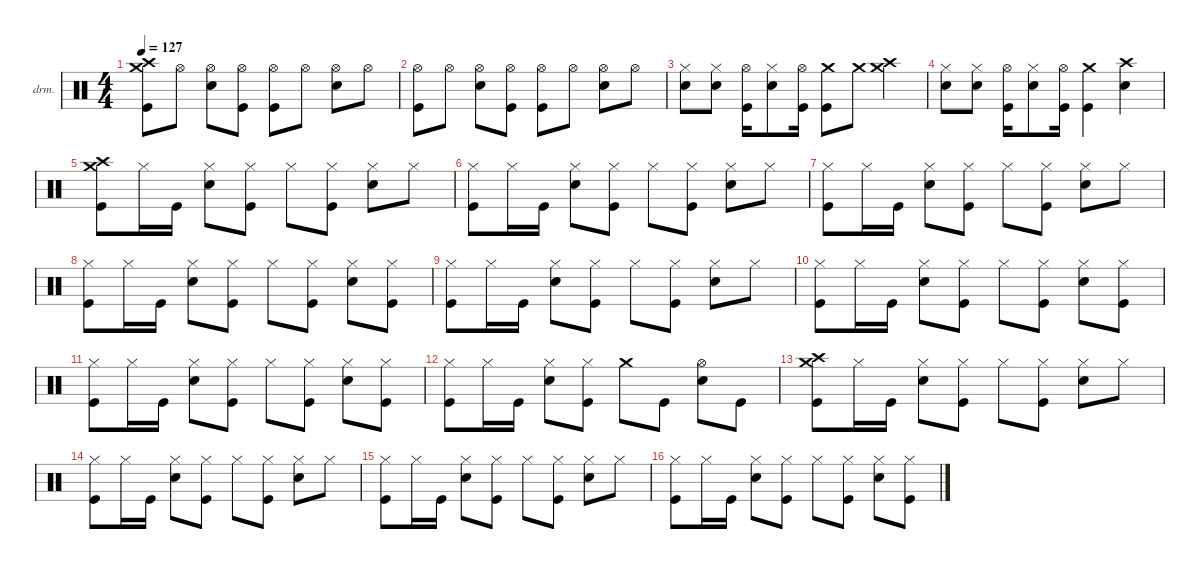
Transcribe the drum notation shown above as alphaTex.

\defaultSystemsLayout 4
\hideDynamics
\bracketExtendMode nobrackets
\firstSystemTrackNameOrientation horizontal
\otherSystemsTrackNameOrientation horizontal
\track ("Drums" "drm.") {instrument percussion}
\staff {score}
\articulation defaults
\ts (4 4)
\tempo 127
\clef neutral
\ks c
("Crash medium (hit)" "Crash high (hit)" "Kick (hit)").8{dy f beam Down} "Hi-Hat (open)".8{beam Down} ("Snare (hit) 2" "Hi-Hat (open)").8{beam Down} ("Hi-Hat (open)" "Kick (hit)").8{beam Down} ("Hi-Hat (open)" "Kick (hit)").8{beam Down} "Hi-Hat (open)".8{beam Down} ("Snare (hit) 2" "Hi-Hat (open)").8{beam Down} "Hi-Hat (open)".8{beam Down} |
("Hi-Hat (open)" "Kick (hit)").8{beam Down} "Hi-Hat (open)".8{beam Down} ("Snare (hit) 2" "Hi-Hat (open)").8{beam Down} ("Hi-Hat (open)" "Kick (hit)").8{beam Down} ("Hi-Hat (open)" "Kick (hit)").8{beam Down} "Hi-Hat (open)".8{beam Down} ("Snare (hit) 2" "Hi-Hat (open)").8{beam Down} "Hi-Hat (open)".8{beam Down} |
("Snare (hit) 2" "Hi-Hat (closed)").8{beam Down} ("Snare (hit) 2" "Hi-Hat (closed)").8{beam Down} ("Hi-Hat (open)" "Kick (hit)").16{beam Down} ("Snare (hit) 2" "Hi-Hat (closed)").8{beam Down} ("Hi-Hat (open)" "Kick (hit)").16{beam Down} ("Crash medium (hit)" "Kick (hit)").8{dy fff beam Down} "Crash medium (hit)".8{beam Down} ("Crash medium (hit)" "Crash high (hit)").4{beam Down} |
("Snare (hit) 2" "Hi-Hat (closed)").8{dy f beam Down} ("Snare (hit) 2" "Hi-Hat (closed)").8{beam Down} ("Hi-Hat (open)" "Kick (hit)").16{beam Down} ("Snare (hit) 2" "Hi-Hat (closed)").8{beam Down} ("Hi-Hat (open)" "Kick (hit)").16{beam Down} ("Crash medium (hit)" "Kick (hit)").4{dy fff beam Down} ("Snare (hit) 2" "Crash high (hit)").4{dy f beam Down} |
("Crash medium (hit)" "Crash high (hit)" "Kick (hit)").8{beam Down} "Hi-Hat (closed)".16{beam Down} "Kick (hit)".16{beam Down} ("Snare (hit) 2" "Hi-Hat (closed)").8{beam Down} ("Hi-Hat (closed)" "Kick (hit)").8{beam Down} "Hi-Hat (closed)".8{beam Down} ("Hi-Hat (closed)" "Kick (hit)").8{beam Down} ("Snare (hit) 2" "Hi-Hat (closed)").8{beam Down} "Hi-Hat (closed)".8{beam Down} |
("Hi-Hat (closed)" "Kick (hit)").8{beam Down} "Hi-Hat (closed)".16{beam Down} "Kick (hit)".16{beam Down} ("Snare (hit) 2" "Hi-Hat (closed)").8{beam Down} ("Hi-Hat (closed)" "Kick (hit)").8{beam Down} "Hi-Hat (closed)".8{beam Down} ("Hi-Hat (closed)" "Kick (hit)").8{beam Down} ("Snare (hit) 2" "Hi-Hat (closed)").8{beam Down} "Hi-Hat (closed)".8{beam Down} |
("Hi-Hat (closed)" "Kick (hit)").8{beam Down} "Hi-Hat (closed)".16{beam Down} "Kick (hit)".16{beam Down} ("Snare (hit) 2" "Hi-Hat (closed)").8{beam Down} ("Hi-Hat (closed)" "Kick (hit)").8{beam Down} "Hi-Hat (closed)".8{beam Down} ("Hi-Hat (closed)" "Kick (hit)").8{beam Down} ("Snare (hit) 2" "Hi-Hat (closed)").8{beam Down} "Hi-Hat (closed)".8{beam Down} |
("Hi-Hat (closed)" "Kick (hit)").8{beam Down} "Hi-Hat (closed)".16{beam Down} "Kick (hit)".16{beam Down} ("Snare (hit) 2" "Hi-Hat (closed)").8{beam Down} ("Hi-Hat (closed)" "Kick (hit)").8{beam Down} "Hi-Hat (closed)".8{beam Down} ("Hi-Hat (closed)" "Kick (hit)").8{beam Down} ("Snare (hit) 2" "Hi-Hat (closed)").8{beam Down} ("Hi-Hat (closed)" "Kick (hit)").8{beam Down} |
("Hi-Hat (closed)" "Kick (hit)").8{beam Down} "Hi-Hat (closed)".16{beam Down} "Kick (hit)".16{beam Down} ("Snare (hit) 2" "Hi-Hat (closed)").8{beam Down} ("Hi-Hat (closed)" "Kick (hit)").8{beam Down} "Hi-Hat (closed)".8{beam Down} ("Hi-Hat (closed)" "Kick (hit)").8{beam Down} ("Snare (hit) 2" "Hi-Hat (closed)").8{beam Down} "Hi-Hat (closed)".8{beam Down} |
("Hi-Hat (closed)" "Kick (hit)").8{beam Down} "Hi-Hat (closed)".16{beam Down} "Kick (hit)".16{beam Down} ("Snare (hit) 2" "Hi-Hat (closed)").8{beam Down} ("Hi-Hat (closed)" "Kick (hit)").8{beam Down} "Hi-Hat (closed)".8{beam Down} ("Hi-Hat (closed)" "Kick (hit)").8{beam Down} ("Snare (hit) 2" "Hi-Hat (closed)").8{beam Down} ("Hi-Hat (closed)" "Kick (hit)").8{beam Down} |
("Hi-Hat (closed)" "Kick (hit)").8{beam Down} "Hi-Hat (closed)".16{beam Down} "Kick (hit)".16{beam Down} ("Snare (hit) 2" "Hi-Hat (closed)").8{beam Down} ("Hi-Hat (closed)" "Kick (hit)").8{beam Down} "Hi-Hat (closed)".8{beam Down} ("Hi-Hat (closed)" "Kick (hit)").8{beam Down} ("Snare (hit) 2" "Hi-Hat (closed)").8{beam Down} ("Hi-Hat (closed)" "Kick (hit)").8{beam Down} |
("Hi-Hat (closed)" "Kick (hit)").8{beam Down} "Hi-Hat (closed)".16{beam Down} "Kick (hit)".16{beam Down} ("Snare (hit) 2" "Hi-Hat (closed)").8{beam Down} ("Hi-Hat (closed)" "Kick (hit)").8{beam Down} "Crash medium (hit)".8{beam Down} "Kick (hit)".8{beam Down} ("Snare (hit) 2" "Hi-Hat (open)").8{beam Down} "Kick (hit)".8{beam Down} |
("Crash medium (hit)" "Crash high (hit)" "Kick (hit)").8{beam Down} "Hi-Hat (closed)".16{beam Down} "Kick (hit)".16{beam Down} ("Snare (hit) 2" "Hi-Hat (closed)").8{beam Down} ("Hi-Hat (closed)" "Kick (hit)").8{beam Down} "Hi-Hat (closed)".8{beam Down} ("Hi-Hat (closed)" "Kick (hit)").8{beam Down} ("Snare (hit) 2" "Hi-Hat (closed)").8{beam Down} "Hi-Hat (closed)".8{beam Down} |
("Hi-Hat (closed)" "Kick (hit)").8{beam Down} "Hi-Hat (closed)".16{beam Down} "Kick (hit)".16{beam Down} ("Snare (hit) 2" "Hi-Hat (closed)").8{beam Down} ("Hi-Hat (closed)" "Kick (hit)").8{beam Down} "Hi-Hat (closed)".8{beam Down} ("Hi-Hat (closed)" "Kick (hit)").8{beam Down} ("Snare (hit) 2" "Hi-Hat (closed)").8{beam Down} "Hi-Hat (closed)".8{beam Down} |
("Hi-Hat (closed)" "Kick (hit)").8{beam Down} "Hi-Hat (closed)".16{beam Down} "Kick (hit)".16{beam Down} ("Snare (hit) 2" "Hi-Hat (closed)").8{beam Down} ("Hi-Hat (closed)" "Kick (hit)").8{beam Down} "Hi-Hat (closed)".8{beam Down} ("Hi-Hat (closed)" "Kick (hit)").8{beam Down} ("Snare (hit) 2" "Hi-Hat (closed)").8{beam Down} "Hi-Hat (closed)".8{beam Down} |
("Hi-Hat (closed)" "Kick (hit)").8{beam Down} "Hi-Hat (closed)".16{beam Down} "Kick (hit)".16{beam Down} ("Snare (hit) 2" "Hi-Hat (closed)").8{beam Down} ("Hi-Hat (closed)" "Kick (hit)").8{beam Down} "Hi-Hat (closed)".8{beam Down} ("Hi-Hat (closed)" "Kick (hit)").8{beam Down} ("Snare (hit) 2" "Hi-Hat (closed)").8{beam Down} ("Hi-Hat (closed)" "Kick (hit)").8{beam Down}
